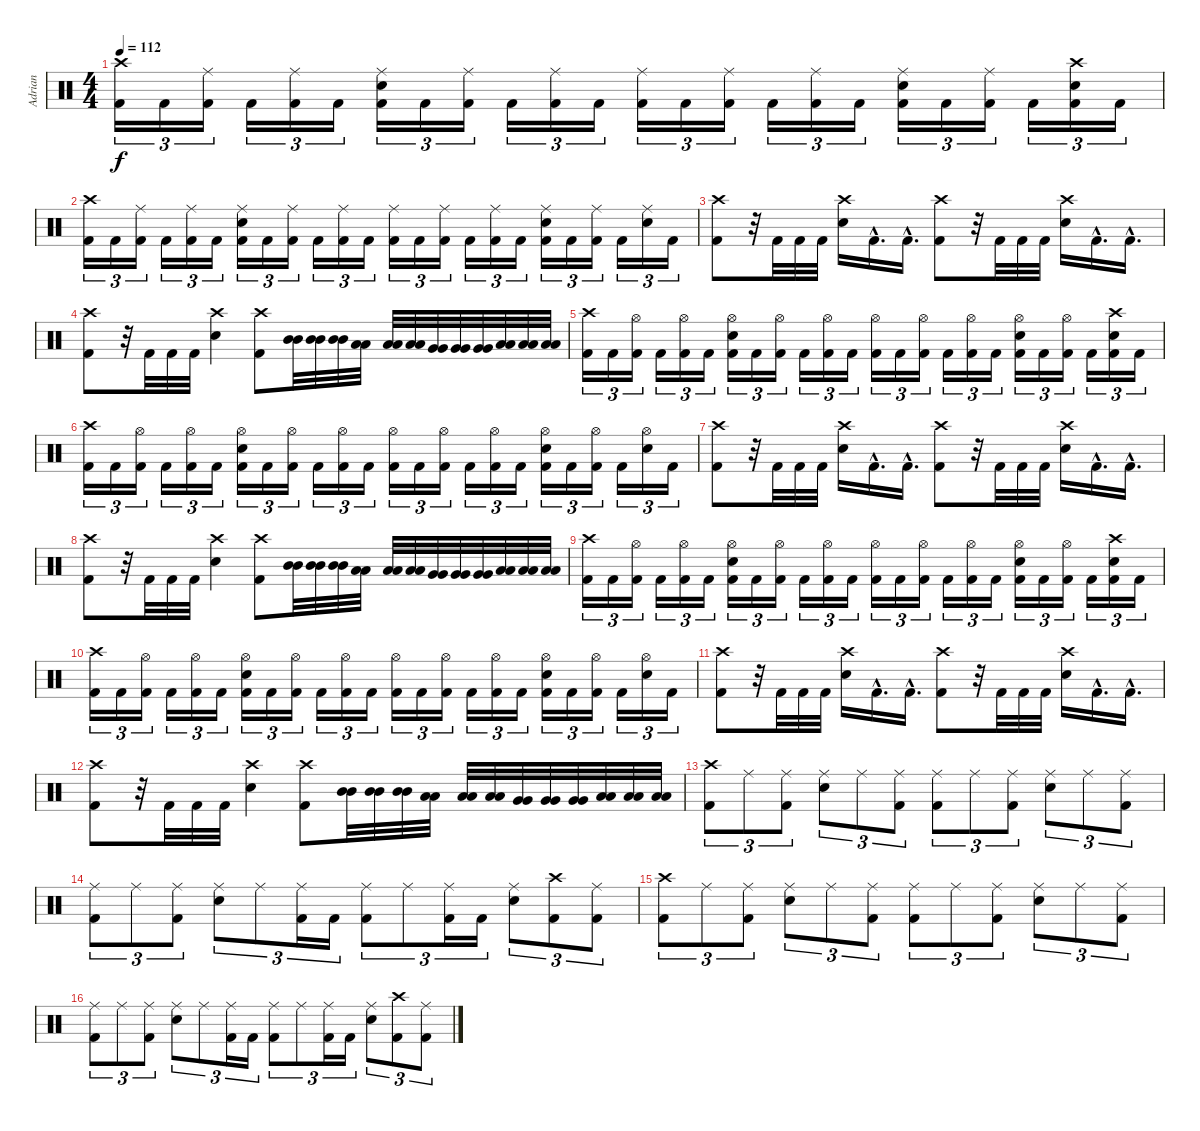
\track ("Adrian" "Adrian") {instrument percussion}
\staff {score}
\articulation defaults
\ts (4 4)
\tempo 112
\clef neutral
\ks c
("Crash high (hit)" "Kick (hit) 2").16{tu (3 2) dy f} "Kick (hit) 2".16{tu (3 2)} ("Ride (middle)" "Kick (hit) 2").16{tu (3 2)} "Kick (hit) 2".16{tu (3 2)} ("Ride (middle)" "Kick (hit) 2").16{tu (3 2)} "Kick (hit) 2".16{tu (3 2)} ("Ride (middle)" "Kick (hit) 2" "Snare (hit) 2").16{tu (3 2)} "Kick (hit) 2".16{tu (3 2)} ("Ride (middle)" "Kick (hit) 2").16{tu (3 2)} "Kick (hit) 2".16{tu (3 2)} ("Ride (middle)" "Kick (hit) 2").16{tu (3 2)} "Kick (hit) 2".16{tu (3 2)} ("Ride (middle)" "Kick (hit) 2").16{tu (3 2)} "Kick (hit) 2".16{tu (3 2)} ("Ride (middle)" "Kick (hit) 2").16{tu (3 2)} "Kick (hit) 2".16{tu (3 2)} ("Ride (middle)" "Kick (hit) 2").16{tu (3 2)} "Kick (hit) 2".16{tu (3 2)} ("Ride (middle)" "Kick (hit) 2" "Snare (hit) 2").16{tu (3 2)} "Kick (hit) 2".16{tu (3 2)} ("Ride (middle)" "Kick (hit) 2").16{tu (3 2)} "Kick (hit) 2".16{tu (3 2)} ("Crash high (hit)" "Snare (hit) 2" "Kick (hit) 2").16{tu (3 2)} "Kick (hit) 2".16{tu (3 2)} |
("Crash high (hit)" "Kick (hit) 2").16{tu (3 2)} "Kick (hit) 2".16{tu (3 2)} ("Ride (middle)" "Kick (hit) 2").16{tu (3 2)} "Kick (hit) 2".16{tu (3 2)} ("Ride (middle)" "Kick (hit) 2").16{tu (3 2)} "Kick (hit) 2".16{tu (3 2)} ("Ride (middle)" "Kick (hit) 2" "Snare (hit) 2").16{tu (3 2)} "Kick (hit) 2".16{tu (3 2)} ("Ride (middle)" "Kick (hit) 2").16{tu (3 2)} "Kick (hit) 2".16{tu (3 2)} ("Ride (middle)" "Kick (hit) 2").16{tu (3 2)} "Kick (hit) 2".16{tu (3 2)} ("Ride (middle)" "Kick (hit) 2").16{tu (3 2)} "Kick (hit) 2".16{tu (3 2)} ("Ride (middle)" "Kick (hit) 2").16{tu (3 2)} "Kick (hit) 2".16{tu (3 2)} ("Ride (middle)" "Kick (hit) 2").16{tu (3 2)} "Kick (hit) 2".16{tu (3 2)} ("Ride (middle)" "Kick (hit) 2" "Snare (hit) 2").16{tu (3 2)} "Kick (hit) 2".16{tu (3 2)} ("Ride (middle)" "Kick (hit) 2").16{tu (3 2)} "Kick (hit) 2".16{tu (3 2)} ("Ride (middle)" "Snare (hit) 2").16{tu (3 2)} "Kick (hit) 2".16{tu (3 2)} |
("Crash high (hit)" "Kick (hit) 2").8 r.32 "Kick (hit) 2".32 "Kick (hit) 2".32 "Kick (hit) 2".32 ("Crash high (hit)" "Snare (hit) 2").16 "Kick (hit) 2"{hac}.16{d} "Kick (hit) 2"{hac}.16{d} ("Crash high (hit)" "Kick (hit) 2").8 r.32 "Kick (hit) 2".32 "Kick (hit) 2".32 "Kick (hit) 2".32 ("Crash high (hit)" "Snare (hit) 2").16 "Kick (hit) 2"{hac}.16{d} "Kick (hit) 2"{hac}.16{d} |
("Crash high (hit)" "Kick (hit) 2").8 r.32 "Kick (hit) 2".32 "Kick (hit) 2".32 "Kick (hit) 2".32 ("Crash high (hit)" "Snare (hit) 2").4 ("Crash high (hit)" "Kick (hit) 2").8 ("Mid Tom (hit)" "Mid Tom (hit)").32 ("Mid Tom (hit)" "Mid Tom (hit)").32 ("Mid Tom (hit)" "Mid Tom (hit)").32 ("Low Tom (hit)" "Low Tom (hit)").32 ("Low Tom (hit)" "Low Tom (hit)").32 ("Low Tom (hit)" "Low Tom (hit)").32 ("Very Low Tom (hit)" "Very Low Tom (hit)").32 ("Very Low Tom (hit)" "Very Low Tom (hit)").32 ("Very Low Tom (hit)" "Very Low Tom (hit)").32 ("Low Floor Tom (hit)" "Low Floor Tom (hit)").32 ("Low Floor Tom (hit)" "Low Floor Tom (hit)").32 ("Low Floor Tom (hit)" "Low Floor Tom (hit)").32 |
("Crash high (hit)" "Kick (hit) 2").16{tu (3 2)} "Kick (hit) 2".16{tu (3 2)} ("Hi-Hat (open)" "Kick (hit) 2").16{tu (3 2)} "Kick (hit) 2".16{tu (3 2)} ("Hi-Hat (open)" "Kick (hit) 2").16{tu (3 2)} "Kick (hit) 2".16{tu (3 2)} ("Hi-Hat (open)" "Kick (hit) 2" "Snare (hit) 2").16{tu (3 2)} "Kick (hit) 2".16{tu (3 2)} ("Hi-Hat (open)" "Kick (hit) 2").16{tu (3 2)} "Kick (hit) 2".16{tu (3 2)} ("Hi-Hat (open)" "Kick (hit) 2").16{tu (3 2)} "Kick (hit) 2".16{tu (3 2)} ("Hi-Hat (open)" "Kick (hit) 2").16{tu (3 2)} "Kick (hit) 2".16{tu (3 2)} ("Hi-Hat (open)" "Kick (hit) 2").16{tu (3 2)} "Kick (hit) 2".16{tu (3 2)} ("Hi-Hat (open)" "Kick (hit) 2").16{tu (3 2)} "Kick (hit) 2".16{tu (3 2)} ("Hi-Hat (open)" "Kick (hit) 2" "Snare (hit) 2").16{tu (3 2)} "Kick (hit) 2".16{tu (3 2)} ("Hi-Hat (open)" "Kick (hit) 2").16{tu (3 2)} "Kick (hit) 2".16{tu (3 2)} ("Crash high (hit)" "Snare (hit) 2" "Kick (hit) 2").16{tu (3 2)} "Kick (hit) 2".16{tu (3 2)} |
("Crash high (hit)" "Kick (hit) 2").16{tu (3 2)} "Kick (hit) 2".16{tu (3 2)} ("Hi-Hat (open)" "Kick (hit) 2").16{tu (3 2)} "Kick (hit) 2".16{tu (3 2)} ("Hi-Hat (open)" "Kick (hit) 2").16{tu (3 2)} "Kick (hit) 2".16{tu (3 2)} ("Hi-Hat (open)" "Kick (hit) 2" "Snare (hit) 2").16{tu (3 2)} "Kick (hit) 2".16{tu (3 2)} ("Hi-Hat (open)" "Kick (hit) 2").16{tu (3 2)} "Kick (hit) 2".16{tu (3 2)} ("Hi-Hat (open)" "Kick (hit) 2").16{tu (3 2)} "Kick (hit) 2".16{tu (3 2)} ("Hi-Hat (open)" "Kick (hit) 2").16{tu (3 2)} "Kick (hit) 2".16{tu (3 2)} ("Hi-Hat (open)" "Kick (hit) 2").16{tu (3 2)} "Kick (hit) 2".16{tu (3 2)} ("Hi-Hat (open)" "Kick (hit) 2").16{tu (3 2)} "Kick (hit) 2".16{tu (3 2)} ("Hi-Hat (open)" "Kick (hit) 2" "Snare (hit) 2").16{tu (3 2)} "Kick (hit) 2".16{tu (3 2)} ("Hi-Hat (open)" "Kick (hit) 2").16{tu (3 2)} "Kick (hit) 2".16{tu (3 2)} ("Hi-Hat (open)" "Snare (hit) 2").16{tu (3 2)} "Kick (hit) 2".16{tu (3 2)} |
("Crash high (hit)" "Kick (hit) 2").8 r.32 "Kick (hit) 2".32 "Kick (hit) 2".32 "Kick (hit) 2".32 ("Crash high (hit)" "Snare (hit) 2").16 "Kick (hit) 2"{hac}.16{d} "Kick (hit) 2"{hac}.16{d} ("Crash high (hit)" "Kick (hit) 2").8 r.32 "Kick (hit) 2".32 "Kick (hit) 2".32 "Kick (hit) 2".32 ("Crash high (hit)" "Snare (hit) 2").16 "Kick (hit) 2"{hac}.16{d} "Kick (hit) 2"{hac}.16{d} |
("Crash high (hit)" "Kick (hit) 2").8 r.32 "Kick (hit) 2".32 "Kick (hit) 2".32 "Kick (hit) 2".32 ("Crash high (hit)" "Snare (hit) 2").4 ("Crash high (hit)" "Kick (hit) 2").8 ("Mid Tom (hit)" "Mid Tom (hit)").32 ("Mid Tom (hit)" "Mid Tom (hit)").32 ("Mid Tom (hit)" "Mid Tom (hit)").32 ("Low Tom (hit)" "Low Tom (hit)").32 ("Low Tom (hit)" "Low Tom (hit)").32 ("Low Tom (hit)" "Low Tom (hit)").32 ("Very Low Tom (hit)" "Very Low Tom (hit)").32 ("Very Low Tom (hit)" "Very Low Tom (hit)").32 ("Very Low Tom (hit)" "Very Low Tom (hit)").32 ("Low Floor Tom (hit)" "Low Floor Tom (hit)").32 ("Low Floor Tom (hit)" "Low Floor Tom (hit)").32 ("Low Floor Tom (hit)" "Low Floor Tom (hit)").32 |
("Crash high (hit)" "Kick (hit) 2").16{tu (3 2)} "Kick (hit) 2".16{tu (3 2)} ("Hi-Hat (open)" "Kick (hit) 2").16{tu (3 2)} "Kick (hit) 2".16{tu (3 2)} ("Hi-Hat (open)" "Kick (hit) 2").16{tu (3 2)} "Kick (hit) 2".16{tu (3 2)} ("Hi-Hat (open)" "Kick (hit) 2" "Snare (hit) 2").16{tu (3 2)} "Kick (hit) 2".16{tu (3 2)} ("Hi-Hat (open)" "Kick (hit) 2").16{tu (3 2)} "Kick (hit) 2".16{tu (3 2)} ("Hi-Hat (open)" "Kick (hit) 2").16{tu (3 2)} "Kick (hit) 2".16{tu (3 2)} ("Hi-Hat (open)" "Kick (hit) 2").16{tu (3 2)} "Kick (hit) 2".16{tu (3 2)} ("Hi-Hat (open)" "Kick (hit) 2").16{tu (3 2)} "Kick (hit) 2".16{tu (3 2)} ("Hi-Hat (open)" "Kick (hit) 2").16{tu (3 2)} "Kick (hit) 2".16{tu (3 2)} ("Hi-Hat (open)" "Kick (hit) 2" "Snare (hit) 2").16{tu (3 2)} "Kick (hit) 2".16{tu (3 2)} ("Hi-Hat (open)" "Kick (hit) 2").16{tu (3 2)} "Kick (hit) 2".16{tu (3 2)} ("Crash high (hit)" "Snare (hit) 2" "Kick (hit) 2").16{tu (3 2)} "Kick (hit) 2".16{tu (3 2)} |
("Crash high (hit)" "Kick (hit) 2").16{tu (3 2)} "Kick (hit) 2".16{tu (3 2)} ("Hi-Hat (open)" "Kick (hit) 2").16{tu (3 2)} "Kick (hit) 2".16{tu (3 2)} ("Hi-Hat (open)" "Kick (hit) 2").16{tu (3 2)} "Kick (hit) 2".16{tu (3 2)} ("Hi-Hat (open)" "Kick (hit) 2" "Snare (hit) 2").16{tu (3 2)} "Kick (hit) 2".16{tu (3 2)} ("Hi-Hat (open)" "Kick (hit) 2").16{tu (3 2)} "Kick (hit) 2".16{tu (3 2)} ("Hi-Hat (open)" "Kick (hit) 2").16{tu (3 2)} "Kick (hit) 2".16{tu (3 2)} ("Hi-Hat (open)" "Kick (hit) 2").16{tu (3 2)} "Kick (hit) 2".16{tu (3 2)} ("Hi-Hat (open)" "Kick (hit) 2").16{tu (3 2)} "Kick (hit) 2".16{tu (3 2)} ("Hi-Hat (open)" "Kick (hit) 2").16{tu (3 2)} "Kick (hit) 2".16{tu (3 2)} ("Hi-Hat (open)" "Kick (hit) 2" "Snare (hit) 2").16{tu (3 2)} "Kick (hit) 2".16{tu (3 2)} ("Hi-Hat (open)" "Kick (hit) 2").16{tu (3 2)} "Kick (hit) 2".16{tu (3 2)} ("Hi-Hat (open)" "Snare (hit) 2").16{tu (3 2)} "Kick (hit) 2".16{tu (3 2)} |
("Crash high (hit)" "Kick (hit) 2").8 r.32 "Kick (hit) 2".32 "Kick (hit) 2".32 "Kick (hit) 2".32 ("Crash high (hit)" "Snare (hit) 2").16 "Kick (hit) 2"{hac}.16{d} "Kick (hit) 2"{hac}.16{d} ("Crash high (hit)" "Kick (hit) 2").8 r.32 "Kick (hit) 2".32 "Kick (hit) 2".32 "Kick (hit) 2".32 ("Crash high (hit)" "Snare (hit) 2").16 "Kick (hit) 2"{hac}.16{d} "Kick (hit) 2"{hac}.16{d} |
("Crash high (hit)" "Kick (hit) 2").8 r.32 "Kick (hit) 2".32 "Kick (hit) 2".32 "Kick (hit) 2".32 ("Crash high (hit)" "Snare (hit) 2").4 ("Crash high (hit)" "Kick (hit) 2").8 ("Mid Tom (hit)" "Mid Tom (hit)").32 ("Mid Tom (hit)" "Mid Tom (hit)").32 ("Mid Tom (hit)" "Mid Tom (hit)").32 ("Low Tom (hit)" "Low Tom (hit)").32 ("Low Tom (hit)" "Low Tom (hit)").32 ("Low Tom (hit)" "Low Tom (hit)").32 ("Very Low Tom (hit)" "Very Low Tom (hit)").32 ("Very Low Tom (hit)" "Very Low Tom (hit)").32 ("Very Low Tom (hit)" "Very Low Tom (hit)").32 ("Low Floor Tom (hit)" "Low Floor Tom (hit)").32 ("Low Floor Tom (hit)" "Low Floor Tom (hit)").32 ("Low Floor Tom (hit)" "Low Floor Tom (hit)").32 |
("Crash high (hit)" "Kick (hit) 2").8{tu (3 2)} "Ride (middle)".8{tu (3 2)} ("Ride (middle)" "Kick (hit) 2").8{tu (3 2)} ("Ride (middle)" "Snare (hit) 2").8{tu (3 2)} "Ride (middle)".8{tu (3 2)} ("Ride (middle)" "Kick (hit) 2").8{tu (3 2)} ("Ride (middle)" "Kick (hit) 2").8{tu (3 2)} "Ride (middle)".8{tu (3 2)} ("Ride (middle)" "Kick (hit) 2").8{tu (3 2)} ("Ride (middle)" "Snare (hit) 2").8{tu (3 2)} "Ride (middle)".8{tu (3 2)} ("Ride (middle)" "Kick (hit) 2").8{tu (3 2)} |
("Ride (middle)" "Kick (hit) 2").8{tu (3 2)} "Ride (middle)".8{tu (3 2)} ("Ride (middle)" "Kick (hit) 2").8{tu (3 2)} ("Ride (middle)" "Snare (hit) 2").8{tu (3 2)} "Ride (middle)".8{tu (3 2)} ("Ride (middle)" "Kick (hit) 2").16{tu (3 2)} "Kick (hit) 2".16{tu (3 2)} ("Ride (middle)" "Kick (hit) 2").8{tu (3 2)} "Ride (middle)".8{tu (3 2)} ("Ride (middle)" "Kick (hit) 2").16{tu (3 2)} "Kick (hit) 2".16{tu (3 2)} ("Ride (middle)" "Snare (hit) 2").8{tu (3 2)} ("Crash high (hit)" "Kick (hit) 2").8{tu (3 2)} ("Ride (middle)" "Kick (hit) 2").8{tu (3 2)} |
("Crash high (hit)" "Kick (hit) 2").8{tu (3 2)} "Ride (middle)".8{tu (3 2)} ("Ride (middle)" "Kick (hit) 2").8{tu (3 2)} ("Ride (middle)" "Snare (hit) 2").8{tu (3 2)} "Ride (middle)".8{tu (3 2)} ("Ride (middle)" "Kick (hit) 2").8{tu (3 2)} ("Ride (middle)" "Kick (hit) 2").8{tu (3 2)} "Ride (middle)".8{tu (3 2)} ("Ride (middle)" "Kick (hit) 2").8{tu (3 2)} ("Ride (middle)" "Snare (hit) 2").8{tu (3 2)} "Ride (middle)".8{tu (3 2)} ("Ride (middle)" "Kick (hit) 2").8{tu (3 2)} |
("Ride (middle)" "Kick (hit) 2").8{tu (3 2)} "Ride (middle)".8{tu (3 2)} ("Ride (middle)" "Kick (hit) 2").8{tu (3 2)} ("Ride (middle)" "Snare (hit) 2").8{tu (3 2)} "Ride (middle)".8{tu (3 2)} ("Ride (middle)" "Kick (hit) 2").16{tu (3 2)} "Kick (hit) 2".16{tu (3 2)} ("Ride (middle)" "Kick (hit) 2").8{tu (3 2)} "Ride (middle)".8{tu (3 2)} ("Ride (middle)" "Kick (hit) 2").16{tu (3 2)} "Kick (hit) 2".16{tu (3 2)} ("Ride (middle)" "Snare (hit) 2").8{tu (3 2)} ("Crash high (hit)" "Kick (hit) 2").8{tu (3 2)} ("Ride (middle)" "Kick (hit) 2").8{tu (3 2)}
